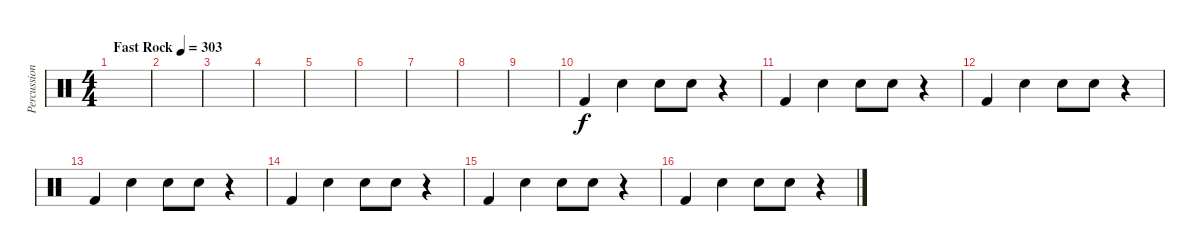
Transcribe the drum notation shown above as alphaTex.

\track ("Percussions" "Percussion") {instrument percussion}
\staff {score}
\articulation defaults
\ts (4 4)
\tempo (303 "Fast Rock")
\clef neutral
\ks c
|
|
|
|
|
|
|
|
|
"Kick (hit) 2".4 "Electric Snare (hit)".4 "Electric Snare (hit)".8 "Electric Snare (hit)".8 r.4 |
"Kick (hit) 2".4 "Electric Snare (hit)".4 "Electric Snare (hit)".8 "Electric Snare (hit)".8 r.4 |
"Kick (hit) 2".4 "Electric Snare (hit)".4 "Electric Snare (hit)".8 "Electric Snare (hit)".8 r.4 |
"Kick (hit) 2".4 "Electric Snare (hit)".4 "Electric Snare (hit)".8 "Electric Snare (hit)".8 r.4 |
"Kick (hit) 2".4 "Electric Snare (hit)".4 "Electric Snare (hit)".8 "Electric Snare (hit)".8 r.4 |
"Kick (hit) 2".4 "Electric Snare (hit)".4 "Electric Snare (hit)".8 "Electric Snare (hit)".8 r.4 |
"Kick (hit) 2".4 "Electric Snare (hit)".4 "Electric Snare (hit)".8 "Electric Snare (hit)".8 r.4
